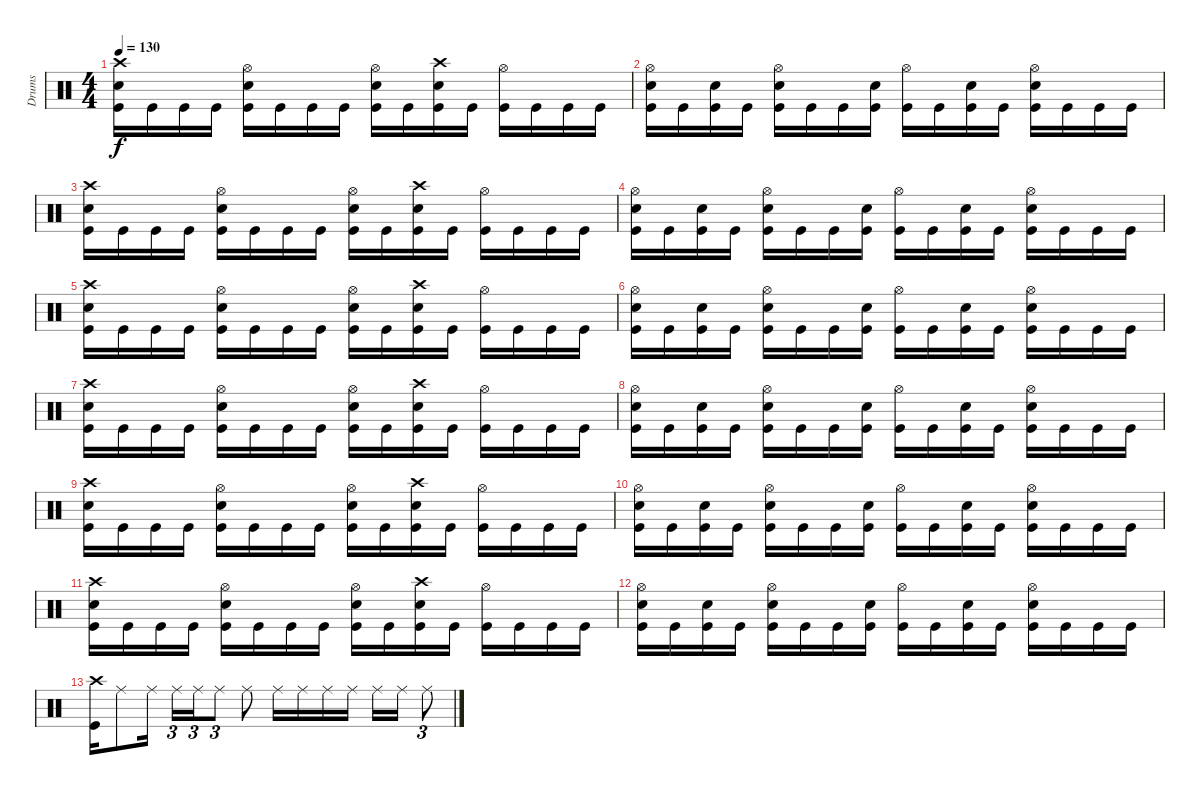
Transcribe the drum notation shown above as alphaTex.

\track ("Drums" "Drums") {instrument percussion}
\staff {score}
\articulation defaults
\ts (4 4)
\tempo 130
\clef neutral
\ks c
("Kick (hit)" "Snare (hit) 2" "Crash high (hit)").16{dy f} "Kick (hit)".16 "Kick (hit)".16 "Kick (hit)".16 ("Kick (hit)" "Snare (hit) 2" "Hi-Hat (open)").16 "Kick (hit)".16 "Kick (hit)".16 "Kick (hit)".16 ("Kick (hit)" "Snare (hit) 2" "Hi-Hat (open)").16 "Kick (hit)".16 ("Kick (hit)" "Snare (hit) 2" "Crash high (hit)").16 "Kick (hit)".16 ("Kick (hit)" "Hi-Hat (open)").16 "Kick (hit)".16 "Kick (hit)".16 "Kick (hit)".16 |
("Kick (hit)" "Snare (hit) 2" "Hi-Hat (open)").16 "Kick (hit)".16 ("Kick (hit)" "Snare (hit) 2").16 "Kick (hit)".16 ("Kick (hit)" "Snare (hit) 2" "Hi-Hat (open)").16 "Kick (hit)".16 "Kick (hit)".16 ("Kick (hit)" "Snare (hit) 2").16 ("Kick (hit)" "Hi-Hat (open)").16 "Kick (hit)".16 ("Kick (hit)" "Snare (hit) 2").16 "Kick (hit)".16 ("Kick (hit)" "Snare (hit) 2" "Hi-Hat (open)").16 "Kick (hit)".16 "Kick (hit)".16 "Kick (hit)".16 |
("Kick (hit)" "Snare (hit) 2" "Crash high (hit)").16 "Kick (hit)".16 "Kick (hit)".16 "Kick (hit)".16 ("Kick (hit)" "Snare (hit) 2" "Hi-Hat (open)").16 "Kick (hit)".16 "Kick (hit)".16 "Kick (hit)".16 ("Kick (hit)" "Snare (hit) 2" "Hi-Hat (open)").16 "Kick (hit)".16 ("Kick (hit)" "Snare (hit) 2" "Crash high (hit)").16 "Kick (hit)".16 ("Kick (hit)" "Hi-Hat (open)").16 "Kick (hit)".16 "Kick (hit)".16 "Kick (hit)".16 |
("Kick (hit)" "Snare (hit) 2" "Hi-Hat (open)").16 "Kick (hit)".16 ("Kick (hit)" "Snare (hit) 2").16 "Kick (hit)".16 ("Kick (hit)" "Snare (hit) 2" "Hi-Hat (open)").16 "Kick (hit)".16 "Kick (hit)".16 ("Kick (hit)" "Snare (hit) 2").16 ("Kick (hit)" "Hi-Hat (open)").16 "Kick (hit)".16 ("Kick (hit)" "Snare (hit) 2").16 "Kick (hit)".16 ("Kick (hit)" "Snare (hit) 2" "Hi-Hat (open)").16 "Kick (hit)".16 "Kick (hit)".16 "Kick (hit)".16 |
("Kick (hit)" "Snare (hit) 2" "Crash high (hit)").16 "Kick (hit)".16 "Kick (hit)".16 "Kick (hit)".16 ("Kick (hit)" "Snare (hit) 2" "Hi-Hat (open)").16 "Kick (hit)".16 "Kick (hit)".16 "Kick (hit)".16 ("Kick (hit)" "Snare (hit) 2" "Hi-Hat (open)").16 "Kick (hit)".16 ("Kick (hit)" "Snare (hit) 2" "Crash high (hit)").16 "Kick (hit)".16 ("Kick (hit)" "Hi-Hat (open)").16 "Kick (hit)".16 "Kick (hit)".16 "Kick (hit)".16 |
("Kick (hit)" "Snare (hit) 2" "Hi-Hat (open)").16 "Kick (hit)".16 ("Kick (hit)" "Snare (hit) 2").16 "Kick (hit)".16 ("Kick (hit)" "Snare (hit) 2" "Hi-Hat (open)").16 "Kick (hit)".16 "Kick (hit)".16 ("Kick (hit)" "Snare (hit) 2").16 ("Kick (hit)" "Hi-Hat (open)").16 "Kick (hit)".16 ("Kick (hit)" "Snare (hit) 2").16 "Kick (hit)".16 ("Kick (hit)" "Snare (hit) 2" "Hi-Hat (open)").16 "Kick (hit)".16 "Kick (hit)".16 "Kick (hit)".16 |
("Kick (hit)" "Snare (hit) 2" "Crash high (hit)").16 "Kick (hit)".16 "Kick (hit)".16 "Kick (hit)".16 ("Kick (hit)" "Snare (hit) 2" "Hi-Hat (open)").16 "Kick (hit)".16 "Kick (hit)".16 "Kick (hit)".16 ("Kick (hit)" "Snare (hit) 2" "Hi-Hat (open)").16 "Kick (hit)".16 ("Kick (hit)" "Snare (hit) 2" "Crash high (hit)").16 "Kick (hit)".16 ("Kick (hit)" "Hi-Hat (open)").16 "Kick (hit)".16 "Kick (hit)".16 "Kick (hit)".16 |
("Kick (hit)" "Snare (hit) 2" "Hi-Hat (open)").16 "Kick (hit)".16 ("Kick (hit)" "Snare (hit) 2").16 "Kick (hit)".16 ("Kick (hit)" "Snare (hit) 2" "Hi-Hat (open)").16 "Kick (hit)".16 "Kick (hit)".16 ("Kick (hit)" "Snare (hit) 2").16 ("Kick (hit)" "Hi-Hat (open)").16 "Kick (hit)".16 ("Kick (hit)" "Snare (hit) 2").16 "Kick (hit)".16 ("Kick (hit)" "Snare (hit) 2" "Hi-Hat (open)").16 "Kick (hit)".16 "Kick (hit)".16 "Kick (hit)".16 |
("Kick (hit)" "Snare (hit) 2" "Crash high (hit)").16 "Kick (hit)".16 "Kick (hit)".16 "Kick (hit)".16 ("Kick (hit)" "Snare (hit) 2" "Hi-Hat (open)").16 "Kick (hit)".16 "Kick (hit)".16 "Kick (hit)".16 ("Kick (hit)" "Snare (hit) 2" "Hi-Hat (open)").16 "Kick (hit)".16 ("Kick (hit)" "Snare (hit) 2" "Crash high (hit)").16 "Kick (hit)".16 ("Kick (hit)" "Hi-Hat (open)").16 "Kick (hit)".16 "Kick (hit)".16 "Kick (hit)".16 |
("Kick (hit)" "Snare (hit) 2" "Hi-Hat (open)").16 "Kick (hit)".16 ("Kick (hit)" "Snare (hit) 2").16 "Kick (hit)".16 ("Kick (hit)" "Snare (hit) 2" "Hi-Hat (open)").16 "Kick (hit)".16 "Kick (hit)".16 ("Kick (hit)" "Snare (hit) 2").16 ("Kick (hit)" "Hi-Hat (open)").16 "Kick (hit)".16 ("Kick (hit)" "Snare (hit) 2").16 "Kick (hit)".16 ("Kick (hit)" "Snare (hit) 2" "Hi-Hat (open)").16 "Kick (hit)".16 "Kick (hit)".16 "Kick (hit)".16 |
("Kick (hit)" "Snare (hit) 2" "Crash high (hit)").16 "Kick (hit)".16 "Kick (hit)".16 "Kick (hit)".16 ("Kick (hit)" "Snare (hit) 2" "Hi-Hat (open)").16 "Kick (hit)".16 "Kick (hit)".16 "Kick (hit)".16 ("Kick (hit)" "Snare (hit) 2" "Hi-Hat (open)").16 "Kick (hit)".16 ("Kick (hit)" "Snare (hit) 2" "Crash high (hit)").16 "Kick (hit)".16 ("Kick (hit)" "Hi-Hat (open)").16 "Kick (hit)".16 "Kick (hit)".16 "Kick (hit)".16 |
("Kick (hit)" "Snare (hit) 2" "Hi-Hat (open)").16 "Kick (hit)".16 ("Kick (hit)" "Snare (hit) 2").16 "Kick (hit)".16 ("Kick (hit)" "Snare (hit) 2" "Hi-Hat (open)").16 "Kick (hit)".16 "Kick (hit)".16 ("Kick (hit)" "Snare (hit) 2").16 ("Kick (hit)" "Hi-Hat (open)").16 "Kick (hit)".16 ("Kick (hit)" "Snare (hit) 2").16 "Kick (hit)".16 ("Kick (hit)" "Snare (hit) 2" "Hi-Hat (open)").16 "Kick (hit)".16 "Kick (hit)".16 "Kick (hit)".16 |
("Kick (hit)" "Crash high (hit)").16 "Ride (middle)".8 "Ride (middle)".16 "Ride (middle)".16{tu (3 2)} "Ride (middle)".16{tu (3 2)} "Ride (middle)".8{tu (3 2)} "Ride (middle)".8 "Ride (middle)".16 "Ride (middle)".16 "Ride (middle)".16 "Ride (middle)".16 "Ride (middle)".16 "Ride (middle)".16 "Ride (middle)".8{tu (3 2)}
